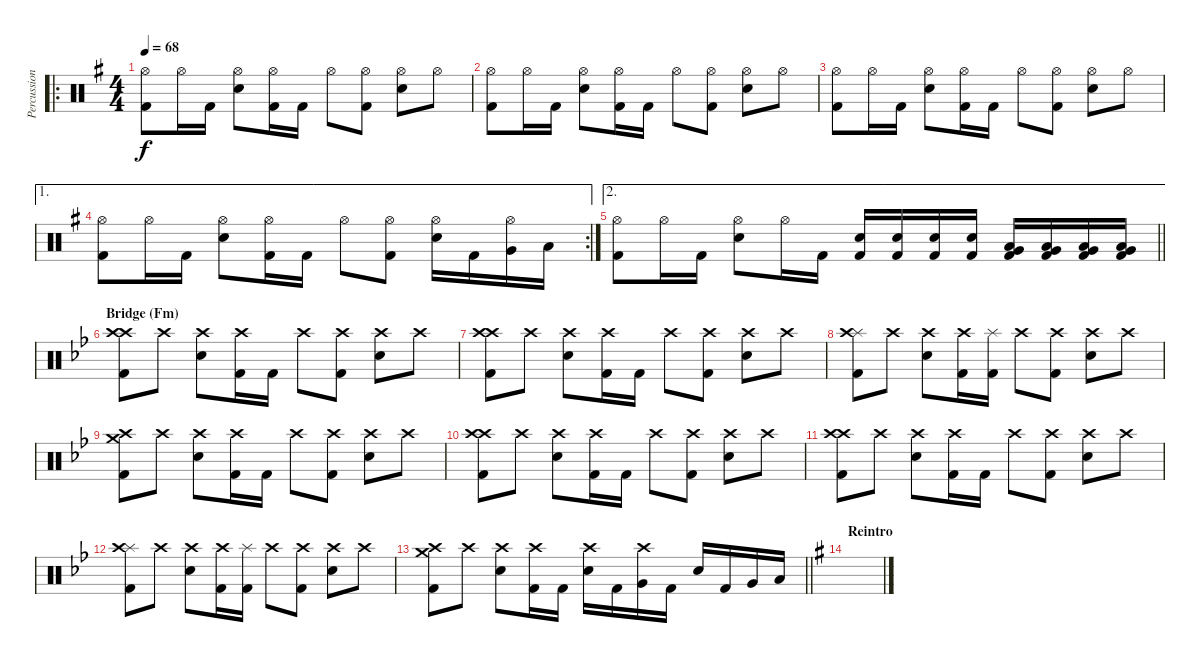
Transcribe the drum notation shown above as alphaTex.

\track ("Percussion" "Percussion") {instrument percussion}
\staff {score}
\articulation defaults
\ro
\ts (4 4)
\tempo 68
\clef neutral
\ks eminor
("Hi-Hat (open)" "Kick (hit) 2").8{dy f} "Hi-Hat (open)".16 "Kick (hit) 2".16 ("Hi-Hat (open)" "Snare (hit) 2").8 ("Hi-Hat (open)" "Kick (hit) 2").16 "Kick (hit) 2".16 "Hi-Hat (open)".8 ("Hi-Hat (open)" "Kick (hit) 2").8 ("Hi-Hat (open)" "Snare (hit) 2").8 "Hi-Hat (open)".8 |
("Hi-Hat (open)" "Kick (hit) 2").8 "Hi-Hat (open)".16 "Kick (hit) 2".16 ("Hi-Hat (open)" "Snare (hit) 2").8 ("Hi-Hat (open)" "Kick (hit) 2").16 "Kick (hit) 2".16 "Hi-Hat (open)".8 ("Hi-Hat (open)" "Kick (hit) 2").8 ("Hi-Hat (open)" "Snare (hit) 2").8 "Hi-Hat (open)".8 |
("Hi-Hat (open)" "Kick (hit) 2").8 "Hi-Hat (open)".16 "Kick (hit) 2".16 ("Hi-Hat (open)" "Snare (hit) 2").8 ("Hi-Hat (open)" "Kick (hit) 2").16 "Kick (hit) 2".16 "Hi-Hat (open)".8 ("Hi-Hat (open)" "Kick (hit) 2").8 ("Hi-Hat (open)" "Snare (hit) 2").8 "Hi-Hat (open)".8 |
\ae 1
\rc 2
("Hi-Hat (open)" "Kick (hit) 2").8 "Hi-Hat (open)".16 "Kick (hit) 2".16 ("Hi-Hat (open)" "Snare (hit) 2").8 ("Hi-Hat (open)" "Kick (hit) 2").16 "Kick (hit) 2".16 "Hi-Hat (open)".8 ("Hi-Hat (open)" "Kick (hit) 2").8 ("Hi-Hat (open)" "Snare (hit) 2").16 "Kick (hit) 2".16 ("Hi-Hat (open)" "Very Low Tom (hit)").16 "Low Floor Tom (hit)".16 |
\ae 2
\barLineRight lightlight
("Hi-Hat (open)" "Kick (hit) 2").8 "Hi-Hat (open)".16 "Kick (hit) 2".16 ("Hi-Hat (open)" "Snare (hit) 2").8 "Hi-Hat (open)".16 "Kick (hit) 2".16 ("Snare (hit) 2" "Kick (hit) 2").16 ("Snare (hit) 2" "Kick (hit) 2").16 ("Snare (hit) 2" "Kick (hit) 2").16 ("Snare (hit) 2" "Kick (hit) 2").16 ("Very Low Tom (hit)" "Low Floor Tom (hit)" "Kick (hit) 2").16 ("Very Low Tom (hit)" "Low Floor Tom (hit)" "Kick (hit) 2").16 ("Very Low Tom (hit)" "Low Floor Tom (hit)" "Kick (hit) 2").16 ("Very Low Tom (hit)" "Low Floor Tom (hit)" "Kick (hit) 2").16 |
\section ("" "Bridge (Fm)")
\ks gminor
("Crash high (hit)" "Crash high (hit)" "Kick (hit) 2").8 "Crash high (hit)".8 ("Crash high (hit)" "Snare (hit) 2").8 ("Crash high (hit)" "Kick (hit) 2").16 "Kick (hit) 2".16 "Crash high (hit)".8 ("Crash high (hit)" "Kick (hit) 2").8 ("Crash high (hit)" "Snare (hit) 2").8 "Crash high (hit)".8 |
("Crash high (hit)" "Crash high (hit)" "Kick (hit) 2").8 "Crash high (hit)".8 ("Crash high (hit)" "Snare (hit) 2").8 ("Crash high (hit)" "Kick (hit) 2").16 "Kick (hit) 2".16 "Crash high (hit)".8 ("Crash high (hit)" "Kick (hit) 2").8 ("Crash high (hit)" "Snare (hit) 2").8 "Crash high (hit)".8 |
("Splash (hit)" "Crash high (hit)" "Kick (hit) 2").8 "Crash high (hit)".8 ("Crash high (hit)" "Snare (hit) 2").8 ("Crash high (hit)" "Kick (hit) 2").16 ("Splash (hit)" "Kick (hit) 2").16 "Crash high (hit)".8 ("Crash high (hit)" "Kick (hit) 2").8 ("Crash high (hit)" "Snare (hit) 2").8 "Crash high (hit)".8 |
("Crash medium (hit)" "Crash high (hit)" "Kick (hit) 2").8 "Crash high (hit)".8 ("Crash high (hit)" "Snare (hit) 2").8 ("Crash high (hit)" "Kick (hit) 2").16 "Kick (hit) 2".16 "Crash high (hit)".8 ("Crash high (hit)" "Kick (hit) 2").8 ("Crash high (hit)" "Snare (hit) 2").8 "Crash high (hit)".8 |
("Crash high (hit)" "Crash high (hit)" "Kick (hit) 2").8 "Crash high (hit)".8 ("Crash high (hit)" "Snare (hit) 2").8 ("Crash high (hit)" "Kick (hit) 2").16 "Kick (hit) 2".16 "Crash high (hit)".8 ("Crash high (hit)" "Kick (hit) 2").8 ("Crash high (hit)" "Snare (hit) 2").8 "Crash high (hit)".8 |
("Crash high (hit)" "Crash high (hit)" "Kick (hit) 2").8 "Crash high (hit)".8 ("Crash high (hit)" "Snare (hit) 2").8 ("Crash high (hit)" "Kick (hit) 2").16 "Kick (hit) 2".16 "Crash high (hit)".8 ("Crash high (hit)" "Kick (hit) 2").8 ("Crash high (hit)" "Snare (hit) 2").8 "Crash high (hit)".8 |
("Splash (hit)" "Crash high (hit)" "Kick (hit) 2").8 "Crash high (hit)".8 ("Crash high (hit)" "Snare (hit) 2").8 ("Crash high (hit)" "Kick (hit) 2").16 ("Splash (hit)" "Kick (hit) 2").16 "Crash high (hit)".8 ("Crash high (hit)" "Kick (hit) 2").8 ("Crash high (hit)" "Snare (hit) 2").8 "Crash high (hit)".8 |
\barLineRight lightlight
("Crash medium (hit)" "Crash high (hit)" "Kick (hit) 2").8 "Crash high (hit)".8 ("Crash high (hit)" "Snare (hit) 2").8 ("Crash high (hit)" "Kick (hit) 2").16 "Kick (hit) 2".16 ("Crash high (hit)" "Snare (hit) 2").16 "Kick (hit) 2".16 ("Crash high (hit)" "Very Low Tom (hit)").16 "Kick (hit) 2".16 "Snare (hit) 2".16 "Kick (hit) 2".16 "Very Low Tom (hit)".16 "Low Floor Tom (hit)".16 |
\section ("" "Reintro")
\ks eminor
